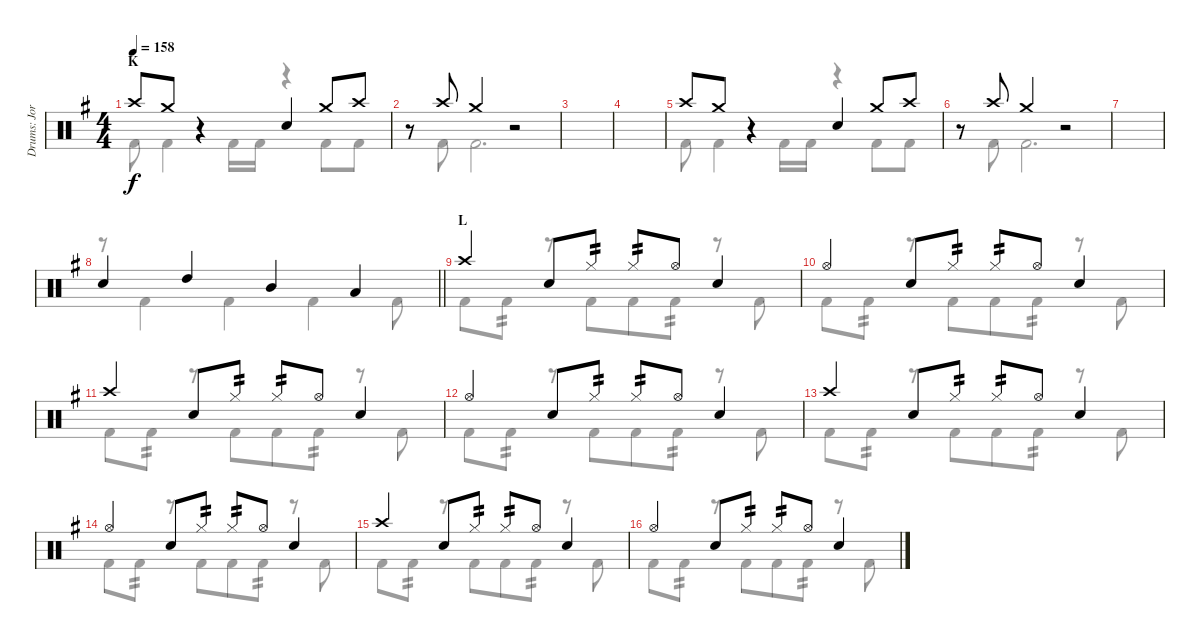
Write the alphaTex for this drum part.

\track ("Drums: Jorg" "Drums: Jor") {instrument percussion}
\staff {score}
\articulation defaults
\voice
\ts (4 4)
\section ("" "K")
\tempo 158
\clef neutral
\ks g "Crash high (hit)".8{dy f} "Crash medium (hit)".8
r.4 "Snare (hit) 2".4 "Crash medium (hit)".8 "Crash high (hit)".8 |
r.8 "Crash high (hit)".8 "Crash medium (hit)".4 r.2 |
|
|
"Crash high (hit)".8 "Crash medium (hit)".8 r.4 "Snare (hit) 2".4 "Crash medium (hit)".8 "Crash high (hit)".8 |
r.8 "Crash high (hit)".8 "Crash medium (hit)".4 r.2 |
|
\barLineRight lightlight "Snare (hit) 2".4 "High Tom (hit)".4 "Mid Tom (hit)".4 "Low Tom (hit)".4
|
\section ("" "L")
"Crash high (hit)".4 "Snare (hit) 2".8 "Hi-Hat (closed)".8{tp 2} "Hi-Hat (closed)".8{tp 2} "Hi-Hat (open)".8 "Snare (hit) 2".4 |
"Hi-Hat (open)".4 "Snare (hit) 2".8 "Hi-Hat (closed)".8{tp 2} "Hi-Hat (closed)".8{tp 2} "Hi-Hat (open)".8 "Snare (hit) 2".4 |
"Crash high (hit)".4 "Snare (hit) 2".8 "Hi-Hat (closed)".8{tp 2} "Hi-Hat (closed)".8{tp 2} "Hi-Hat (open)".8 "Snare (hit) 2".4 |
"Hi-Hat (open)".4 "Snare (hit) 2".8 "Hi-Hat (closed)".8{tp 2} "Hi-Hat (closed)".8{tp 2} "Hi-Hat (open)".8 "Snare (hit) 2".4 |
"Crash high (hit)".4 "Snare (hit) 2".8 "Hi-Hat (closed)".8{tp 2} "Hi-Hat (closed)".8{tp 2} "Hi-Hat (open)".8 "Snare (hit) 2".4 |
"Hi-Hat (open)".4 "Snare (hit) 2".8 "Hi-Hat (closed)".8{tp 2} "Hi-Hat (closed)".8{tp 2} "Hi-Hat (open)".8 "Snare (hit) 2".4 |
"Crash high (hit)".4 "Snare (hit) 2".8 "Hi-Hat (closed)".8{tp 2} "Hi-Hat (closed)".8{tp 2} "Hi-Hat (open)".8 "Snare (hit) 2".4 |
"Hi-Hat (open)".4 "Snare (hit) 2".8 "Hi-Hat (closed)".8{tp 2} "Hi-Hat (closed)".8{tp 2} "Hi-Hat (open)".8 "Snare (hit) 2".4
\voice
\clef neutral
\ottava regular
\simile none
\ks g "Kick (hit) 2".8{dy f} "Kick (hit) 2".4 "Kick (hit) 2".16 "Kick (hit) 2".16
r.4 "Kick (hit) 2".8 "Kick (hit) 2".8 |
r.8 "Kick (hit) 2".8 "Kick (hit) 2".2{d} |
|
|
"Kick (hit) 2".8 "Kick (hit) 2".4 "Kick (hit) 2".16 "Kick (hit) 2".16 r.4 "Kick (hit) 2".8 "Kick (hit) 2".8 |
r.8 "Kick (hit) 2".8 "Kick (hit) 2".2{d} |
|
\barLineRight lightlight
r.8 "Kick (hit) 2".4 "Kick (hit) 2".4 "Kick (hit) 2".4 "Kick (hit) 2".8 |
"Kick (hit) 2".8 "Kick (hit) 2".8{tp 2} r.8 "Kick (hit) 2".8{beam merge} "Kick (hit) 2".8 "Kick (hit) 2".8{tp 2} r.8 "Kick (hit) 2".8 |
"Kick (hit) 2".8 "Kick (hit) 2".8{tp 2} r.8 "Kick (hit) 2".8{beam merge} "Kick (hit) 2".8 "Kick (hit) 2".8{tp 2} r.8 "Kick (hit) 2".8 |
"Kick (hit) 2".8 "Kick (hit) 2".8{tp 2} r.8 "Kick (hit) 2".8{beam merge} "Kick (hit) 2".8 "Kick (hit) 2".8{tp 2} r.8 "Kick (hit) 2".8 |
"Kick (hit) 2".8 "Kick (hit) 2".8{tp 2} r.8 "Kick (hit) 2".8{beam merge} "Kick (hit) 2".8 "Kick (hit) 2".8{tp 2} r.8 "Kick (hit) 2".8 |
"Kick (hit) 2".8 "Kick (hit) 2".8{tp 2} r.8 "Kick (hit) 2".8{beam merge} "Kick (hit) 2".8 "Kick (hit) 2".8{tp 2} r.8 "Kick (hit) 2".8 |
"Kick (hit) 2".8 "Kick (hit) 2".8{tp 2} r.8 "Kick (hit) 2".8{beam merge} "Kick (hit) 2".8 "Kick (hit) 2".8{tp 2} r.8 "Kick (hit) 2".8 |
"Kick (hit) 2".8 "Kick (hit) 2".8{tp 2} r.8 "Kick (hit) 2".8{beam merge} "Kick (hit) 2".8 "Kick (hit) 2".8{tp 2} r.8 "Kick (hit) 2".8 |
"Kick (hit) 2".8 "Kick (hit) 2".8{tp 2} r.8 "Kick (hit) 2".8{beam merge} "Kick (hit) 2".8 "Kick (hit) 2".8{tp 2} r.8 "Kick (hit) 2".8
